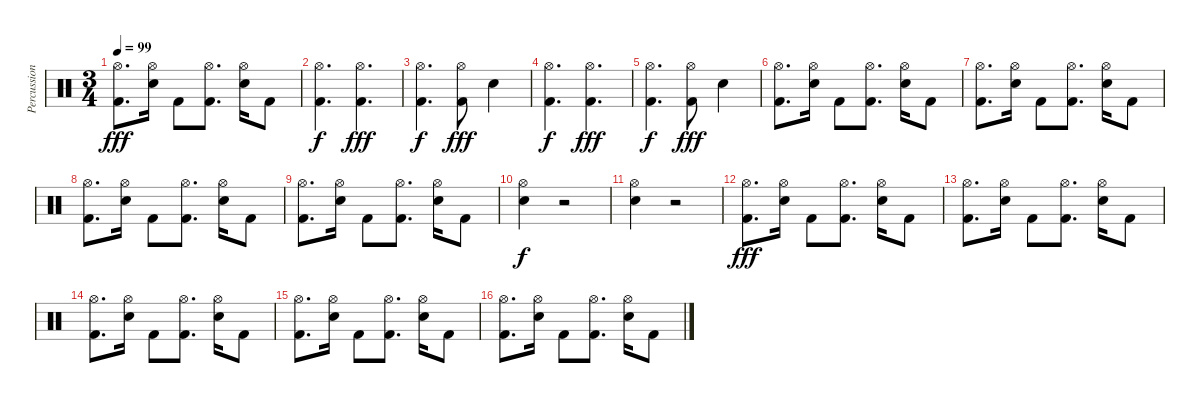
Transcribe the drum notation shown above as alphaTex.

\track ("Percussion" "Percussion") {instrument percussion}
\staff {score}
\articulation defaults
\ts (3 4)
\tempo 99
\clef neutral
\ks c
("Hi-Hat (open)" "Kick (hit) 2").8{d dy fff} ("Hi-Hat (open)" "Electric Snare (hit)").16 "Kick (hit) 2".8 ("Hi-Hat (open)" "Kick (hit) 2").8{d} ("Hi-Hat (open)" "Electric Snare (hit)").16 "Kick (hit) 2".8 |
("Hi-Hat (open)" "Kick (hit) 2").4{d dy f} ("Hi-Hat (open)" "Kick (hit) 2").4{d dy fff} |
("Hi-Hat (open)" "Kick (hit) 2").4{d dy f} ("Hi-Hat (open)" "Kick (hit) 2").8{dy fff} "Electric Snare (hit)".4 |
("Hi-Hat (open)" "Kick (hit) 2").4{d dy f} ("Hi-Hat (open)" "Kick (hit) 2").4{d dy fff} |
("Hi-Hat (open)" "Kick (hit) 2").4{d dy f} ("Hi-Hat (open)" "Kick (hit) 2").8{dy fff} "Electric Snare (hit)".4 |
("Hi-Hat (open)" "Kick (hit) 2").8{d} ("Hi-Hat (open)" "Electric Snare (hit)").16 "Kick (hit) 2".8 ("Hi-Hat (open)" "Kick (hit) 2").8{d} ("Hi-Hat (open)" "Electric Snare (hit)").16 "Kick (hit) 2".8 |
("Hi-Hat (open)" "Kick (hit) 2").8{d} ("Hi-Hat (open)" "Electric Snare (hit)").16 "Kick (hit) 2".8 ("Hi-Hat (open)" "Kick (hit) 2").8{d} ("Hi-Hat (open)" "Electric Snare (hit)").16 "Kick (hit) 2".8 |
("Hi-Hat (open)" "Kick (hit) 2").8{d} ("Hi-Hat (open)" "Electric Snare (hit)").16 "Kick (hit) 2".8 ("Hi-Hat (open)" "Kick (hit) 2").8{d} ("Hi-Hat (open)" "Electric Snare (hit)").16 "Kick (hit) 2".8 |
("Hi-Hat (open)" "Kick (hit) 2").8{d} ("Hi-Hat (open)" "Electric Snare (hit)").16 "Kick (hit) 2".8 ("Hi-Hat (open)" "Kick (hit) 2").8{d} ("Hi-Hat (open)" "Electric Snare (hit)").16 "Kick (hit) 2".8 |
("Hi-Hat (open)" "Electric Snare (hit)").4{dy f} r.2 |
("Hi-Hat (open)" "Electric Snare (hit)").4 r.2 |
("Hi-Hat (open)" "Kick (hit) 2").8{d dy fff} ("Hi-Hat (open)" "Electric Snare (hit)").16 "Kick (hit) 2".8 ("Hi-Hat (open)" "Kick (hit) 2").8{d} ("Hi-Hat (open)" "Electric Snare (hit)").16 "Kick (hit) 2".8 |
("Hi-Hat (open)" "Kick (hit) 2").8{d} ("Hi-Hat (open)" "Electric Snare (hit)").16 "Kick (hit) 2".8 ("Hi-Hat (open)" "Kick (hit) 2").8{d} ("Hi-Hat (open)" "Electric Snare (hit)").16 "Kick (hit) 2".8 |
("Hi-Hat (open)" "Kick (hit) 2").8{d} ("Hi-Hat (open)" "Electric Snare (hit)").16 "Kick (hit) 2".8 ("Hi-Hat (open)" "Kick (hit) 2").8{d} ("Hi-Hat (open)" "Electric Snare (hit)").16 "Kick (hit) 2".8 |
("Hi-Hat (open)" "Kick (hit) 2").8{d} ("Hi-Hat (open)" "Electric Snare (hit)").16 "Kick (hit) 2".8 ("Hi-Hat (open)" "Kick (hit) 2").8{d} ("Hi-Hat (open)" "Electric Snare (hit)").16 "Kick (hit) 2".8 |
("Hi-Hat (open)" "Kick (hit) 2").8{d} ("Hi-Hat (open)" "Electric Snare (hit)").16 "Kick (hit) 2".8 ("Hi-Hat (open)" "Kick (hit) 2").8{d} ("Hi-Hat (open)" "Electric Snare (hit)").16 "Kick (hit) 2".8
